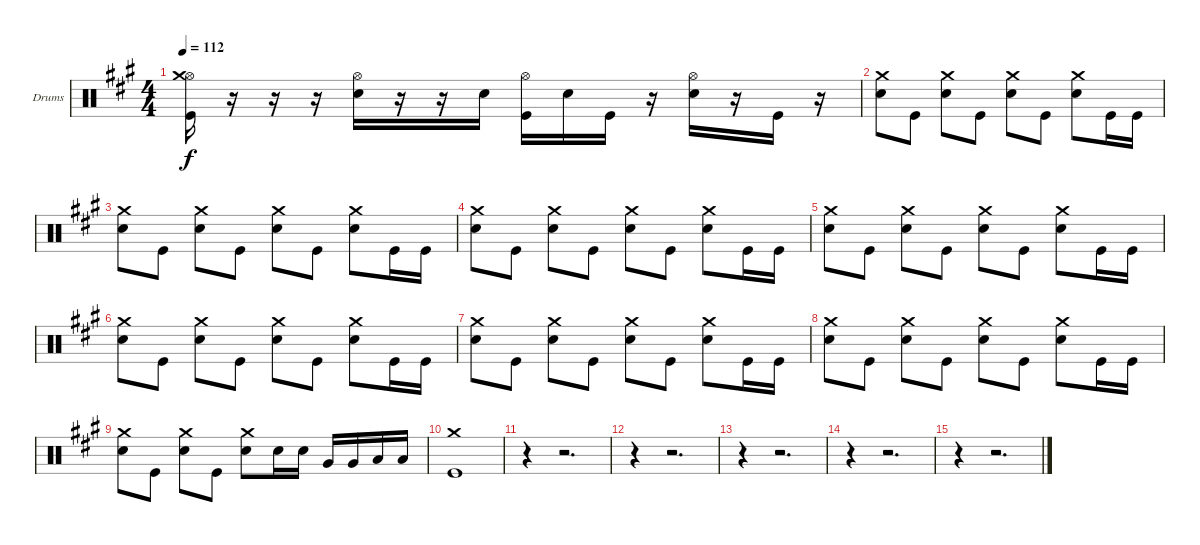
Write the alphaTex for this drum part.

\defaultSystemsLayout 4
\bracketExtendMode groupsimilarinstruments
\firstSystemTrackNameOrientation horizontal
\otherSystemsTrackNameOrientation horizontal
\track ("Drumkit" "Drums") {instrument percussion}
\staff {score}
\articulation defaults
\ts (4 4)
\tempo 112
\clef neutral
\scale
1.05801
\ks a
("Hi-Hat (open)" "Kick (hit)" "Crash medium (hit)").16{dy f} r.16 r.16 r.16 ("Hi-Hat (open)" "Snare (hit) 2").16 r.16 r.16 "Snare (hit) 2".16 ("Hi-Hat (open)" "Kick (hit)").16 "Snare (hit) 2".16 "Kick (hit)".16 r.16 ("Hi-Hat (open)" "Snare (hit) 2").16 r.16 "Kick (hit)".16 r.16 |
\scale
0.941992 ("Crash medium (hit)" "Snare (hit) 2").8 "Kick (hit)".8 ("Crash medium (hit)" "Snare (hit) 2").8 "Kick (hit)".8 ("Crash medium (hit)" "Snare (hit) 2").8 "Kick (hit)".8 ("Crash medium (hit)" "Snare (hit) 2").8 "Kick (hit)".16 "Kick (hit)".16 |
\scale
1.05801 ("Crash medium (hit)" "Snare (hit) 2").8 "Kick (hit)".8 ("Crash medium (hit)" "Snare (hit) 2").8 "Kick (hit)".8 ("Crash medium (hit)" "Snare (hit) 2").8 "Kick (hit)".8 ("Crash medium (hit)" "Snare (hit) 2").8 "Kick (hit)".16 "Kick (hit)".16 |
\scale
0.941992 ("Crash medium (hit)" "Snare (hit) 2").8 "Kick (hit)".8 ("Crash medium (hit)" "Snare (hit) 2").8 "Kick (hit)".8 ("Crash medium (hit)" "Snare (hit) 2").8 "Kick (hit)".8 ("Crash medium (hit)" "Snare (hit) 2").8 "Kick (hit)".16 "Kick (hit)".16 |
\scale
1.05801 ("Crash medium (hit)" "Snare (hit) 2").8 "Kick (hit)".8 ("Crash medium (hit)" "Snare (hit) 2").8 "Kick (hit)".8 ("Crash medium (hit)" "Snare (hit) 2").8 "Kick (hit)".8 ("Crash medium (hit)" "Snare (hit) 2").8 "Kick (hit)".16 "Kick (hit)".16 |
\scale
0.941992 ("Crash medium (hit)" "Snare (hit) 2").8 "Kick (hit)".8 ("Crash medium (hit)" "Snare (hit) 2").8 "Kick (hit)".8 ("Crash medium (hit)" "Snare (hit) 2").8 "Kick (hit)".8 ("Crash medium (hit)" "Snare (hit) 2").8 "Kick (hit)".16 "Kick (hit)".16 |
\scale
1.05801 ("Crash medium (hit)" "Snare (hit) 2").8 "Kick (hit)".8 ("Crash medium (hit)" "Snare (hit) 2").8 "Kick (hit)".8 ("Crash medium (hit)" "Snare (hit) 2").8 "Kick (hit)".8 ("Crash medium (hit)" "Snare (hit) 2").8 "Kick (hit)".16 "Kick (hit)".16 |
\scale
0.941992 ("Crash medium (hit)" "Snare (hit) 2").8 "Kick (hit)".8 ("Crash medium (hit)" "Snare (hit) 2").8 "Kick (hit)".8 ("Crash medium (hit)" "Snare (hit) 2").8 "Kick (hit)".8 ("Crash medium (hit)" "Snare (hit) 2").8 "Kick (hit)".16 "Kick (hit)".16 |
\scale
1.05801 ("Crash medium (hit)" "Snare (hit) 2").8 "Kick (hit)".8 ("Crash medium (hit)" "Snare (hit) 2").8 "Kick (hit)".8 ("Crash medium (hit)" "Snare (hit) 2").8 "Snare (hit) 2".16 "Snare (hit) 2".16 "Very Low Tom (hit)".16 "Very Low Tom (hit)".16 "Low Tom (hit)".16 "Low Tom (hit)".16 |
\scale
0.941992 ("Crash medium (hit)" "Kick (hit)").1 |
\scale
1.05801 r.4 r.2{d} |
\scale
0.941992 r.4 r.2{d} |
\scale
1.05801 r.4 r.2{d} |
\scale
0.941992 r.4 r.2{d} |
r.4 r.2{d}
